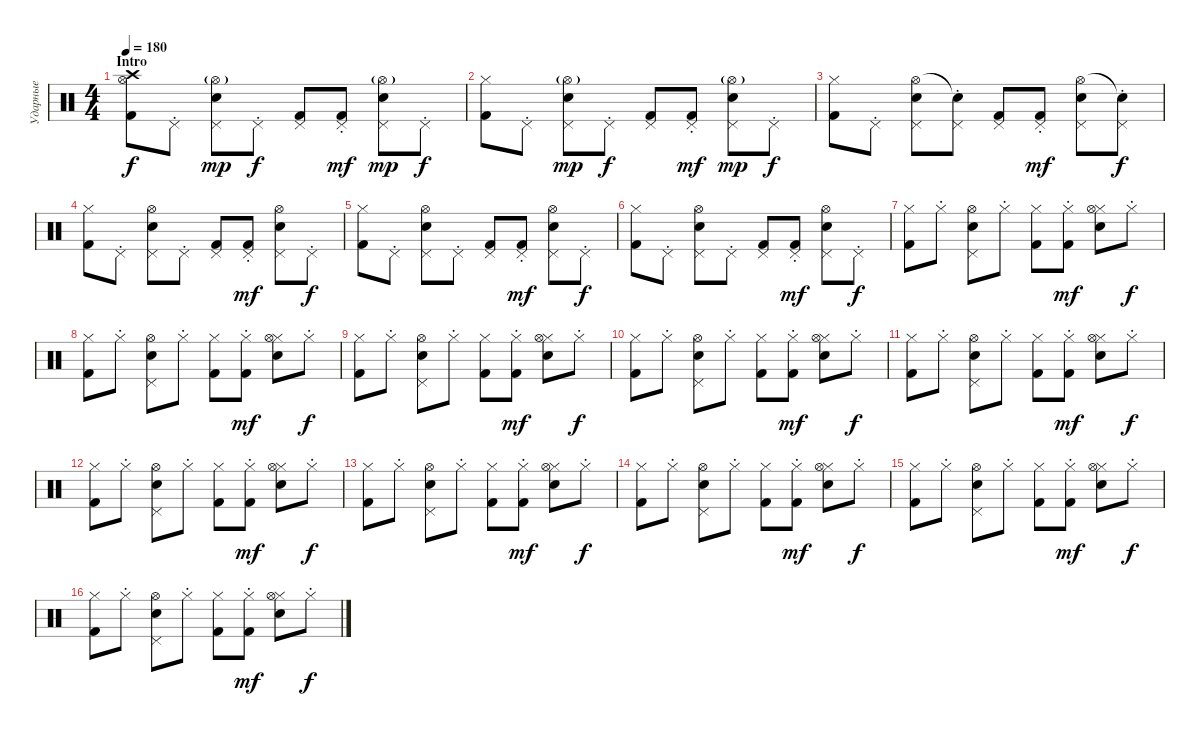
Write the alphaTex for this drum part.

\track ("Ударные" "Ударные") {instrument percussion}
\staff {score}
\articulation defaults
\ts (4 4)
\section ("" "Intro")
\tempo 180
\clef neutral
\ks c
("Hi-Hat (open)" "Crash high (hit)" "Kick (hit) 2").8{dy f} "Pedal Hi-Hat (hit)"{st}.8 ("Pedal Hi-Hat (hit)" "Hi-Hat (open)"{g} "Snare (hit) 2").8{dy mp} "Pedal Hi-Hat (hit)"{st}.8{dy f} ("Pedal Hi-Hat (hit)" "Kick (hit) 2").8 ("Pedal Hi-Hat (hit)"{st} "Kick (hit) 2").8{dy mf} ("Pedal Hi-Hat (hit)" "Hi-Hat (open)"{g} "Snare (hit) 2").8{dy mp} "Pedal Hi-Hat (hit)"{st}.8{dy f} |
("Hi-Hat (closed)" "Kick (hit) 2").8 "Pedal Hi-Hat (hit)"{st}.8 ("Pedal Hi-Hat (hit)" "Hi-Hat (open)"{g} "Snare (hit) 2").8{dy mp} "Pedal Hi-Hat (hit)"{st}.8{dy f} ("Pedal Hi-Hat (hit)" "Kick (hit) 2").8 ("Pedal Hi-Hat (hit)"{st} "Kick (hit) 2").8{dy mf} ("Pedal Hi-Hat (hit)" "Hi-Hat (open)"{g} "Snare (hit) 2").8{dy mp} "Pedal Hi-Hat (hit)"{st}.8{dy f} |
("Hi-Hat (closed)" "Kick (hit) 2").8 "Pedal Hi-Hat (hit)"{st}.8 ("Pedal Hi-Hat (hit)" "Hi-Hat (open)" "Snare (hit) 2").8 ("Pedal Hi-Hat (hit)"{st} "Snare (hit)"{t}).8 ("Pedal Hi-Hat (hit)" "Kick (hit) 2").8 ("Pedal Hi-Hat (hit)"{st} "Kick (hit) 2").8{dy mf} ("Pedal Hi-Hat (hit)" "Hi-Hat (open)" "Snare (hit) 2").8 ("Pedal Hi-Hat (hit)"{st} "Snare (hit)"{t}).8{dy f} |
("Hi-Hat (closed)" "Kick (hit) 2").8 "Pedal Hi-Hat (hit)"{st}.8 ("Pedal Hi-Hat (hit)" "Hi-Hat (open)" "Snare (hit) 2").8 "Pedal Hi-Hat (hit)"{st}.8 ("Pedal Hi-Hat (hit)" "Kick (hit) 2").8 ("Pedal Hi-Hat (hit)"{st} "Kick (hit) 2").8{dy mf} ("Pedal Hi-Hat (hit)" "Hi-Hat (open)" "Snare (hit) 2").8 "Pedal Hi-Hat (hit)"{st}.8{dy f} |
("Hi-Hat (closed)" "Kick (hit) 2").8 "Pedal Hi-Hat (hit)"{st}.8 ("Pedal Hi-Hat (hit)" "Hi-Hat (open)" "Snare (hit) 2").8 "Pedal Hi-Hat (hit)"{st}.8 ("Pedal Hi-Hat (hit)" "Kick (hit) 2").8 ("Pedal Hi-Hat (hit)"{st} "Kick (hit) 2").8{dy mf} ("Pedal Hi-Hat (hit)" "Hi-Hat (open)" "Snare (hit) 2").8 "Pedal Hi-Hat (hit)"{st}.8{dy f} |
("Hi-Hat (closed)" "Kick (hit) 2").8 "Pedal Hi-Hat (hit)"{st}.8 ("Pedal Hi-Hat (hit)" "Hi-Hat (open)" "Snare (hit) 2").8 "Pedal Hi-Hat (hit)"{st}.8 ("Pedal Hi-Hat (hit)" "Kick (hit) 2").8 ("Pedal Hi-Hat (hit)"{st} "Kick (hit) 2").8{dy mf} ("Pedal Hi-Hat (hit)" "Hi-Hat (open)" "Snare (hit) 2").8 "Pedal Hi-Hat (hit)"{st}.8{dy f} |
("Hi-Hat (closed)" "Kick (hit) 2").8 "Hi-Hat (closed)"{st}.8 ("Pedal Hi-Hat (hit)" "Hi-Hat (open)" "Snare (hit) 2").8 "Hi-Hat (closed)"{st}.8 ("Hi-Hat (closed)" "Kick (hit) 2").8 ("Hi-Hat (closed)"{st} "Kick (hit) 2").8{dy mf} ("Hi-Hat (closed)" "Hi-Hat (open)" "Snare (hit) 2").8 "Hi-Hat (closed)"{st}.8{dy f} |
("Hi-Hat (closed)" "Kick (hit) 2").8 "Hi-Hat (closed)"{st}.8 ("Pedal Hi-Hat (hit)" "Hi-Hat (open)" "Snare (hit) 2").8 "Hi-Hat (closed)"{st}.8 ("Hi-Hat (closed)" "Kick (hit) 2").8 ("Hi-Hat (closed)"{st} "Kick (hit) 2").8{dy mf} ("Hi-Hat (closed)" "Hi-Hat (open)" "Snare (hit) 2").8 "Hi-Hat (closed)"{st}.8{dy f} |
("Hi-Hat (closed)" "Kick (hit) 2").8 "Hi-Hat (closed)"{st}.8 ("Pedal Hi-Hat (hit)" "Hi-Hat (open)" "Snare (hit) 2").8 "Hi-Hat (closed)"{st}.8 ("Hi-Hat (closed)" "Kick (hit) 2").8 ("Hi-Hat (closed)"{st} "Kick (hit) 2").8{dy mf} ("Hi-Hat (closed)" "Hi-Hat (open)" "Snare (hit) 2").8 "Hi-Hat (closed)"{st}.8{dy f} |
("Hi-Hat (closed)" "Kick (hit) 2").8 "Hi-Hat (closed)"{st}.8 ("Pedal Hi-Hat (hit)" "Hi-Hat (open)" "Snare (hit) 2").8 "Hi-Hat (closed)"{st}.8 ("Hi-Hat (closed)" "Kick (hit) 2").8 ("Hi-Hat (closed)"{st} "Kick (hit) 2").8{dy mf} ("Hi-Hat (closed)" "Hi-Hat (open)" "Snare (hit) 2").8 "Hi-Hat (closed)"{st}.8{dy f} |
("Hi-Hat (closed)" "Kick (hit) 2").8 "Hi-Hat (closed)"{st}.8 ("Pedal Hi-Hat (hit)" "Hi-Hat (open)" "Snare (hit) 2").8 "Hi-Hat (closed)"{st}.8 ("Hi-Hat (closed)" "Kick (hit) 2").8 ("Hi-Hat (closed)"{st} "Kick (hit) 2").8{dy mf} ("Hi-Hat (closed)" "Hi-Hat (open)" "Snare (hit) 2").8 "Hi-Hat (closed)"{st}.8{dy f} |
("Hi-Hat (closed)" "Kick (hit) 2").8 "Hi-Hat (closed)"{st}.8 ("Pedal Hi-Hat (hit)" "Hi-Hat (open)" "Snare (hit) 2").8 "Hi-Hat (closed)"{st}.8 ("Hi-Hat (closed)" "Kick (hit) 2").8 ("Hi-Hat (closed)"{st} "Kick (hit) 2").8{dy mf} ("Hi-Hat (closed)" "Hi-Hat (open)" "Snare (hit) 2").8 "Hi-Hat (closed)"{st}.8{dy f} |
("Hi-Hat (closed)" "Kick (hit) 2").8 "Hi-Hat (closed)"{st}.8 ("Pedal Hi-Hat (hit)" "Hi-Hat (open)" "Snare (hit) 2").8 "Hi-Hat (closed)"{st}.8 ("Hi-Hat (closed)" "Kick (hit) 2").8 ("Hi-Hat (closed)"{st} "Kick (hit) 2").8{dy mf} ("Hi-Hat (closed)" "Hi-Hat (open)" "Snare (hit) 2").8 "Hi-Hat (closed)"{st}.8{dy f} |
("Hi-Hat (closed)" "Kick (hit) 2").8 "Hi-Hat (closed)"{st}.8 ("Pedal Hi-Hat (hit)" "Hi-Hat (open)" "Snare (hit) 2").8 "Hi-Hat (closed)"{st}.8 ("Hi-Hat (closed)" "Kick (hit) 2").8 ("Hi-Hat (closed)"{st} "Kick (hit) 2").8{dy mf} ("Hi-Hat (closed)" "Hi-Hat (open)" "Snare (hit) 2").8 "Hi-Hat (closed)"{st}.8{dy f} |
("Hi-Hat (closed)" "Kick (hit) 2").8 "Hi-Hat (closed)"{st}.8 ("Pedal Hi-Hat (hit)" "Hi-Hat (open)" "Snare (hit) 2").8 "Hi-Hat (closed)"{st}.8 ("Hi-Hat (closed)" "Kick (hit) 2").8 ("Hi-Hat (closed)"{st} "Kick (hit) 2").8{dy mf} ("Hi-Hat (closed)" "Hi-Hat (open)" "Snare (hit) 2").8 "Hi-Hat (closed)"{st}.8{dy f} |
("Hi-Hat (closed)" "Kick (hit) 2").8 "Hi-Hat (closed)"{st}.8 ("Pedal Hi-Hat (hit)" "Hi-Hat (open)" "Snare (hit) 2").8 "Hi-Hat (closed)"{st}.8 ("Hi-Hat (closed)" "Kick (hit) 2").8 ("Hi-Hat (closed)"{st} "Kick (hit) 2").8{dy mf} ("Hi-Hat (closed)" "Hi-Hat (open)" "Snare (hit) 2").8 "Hi-Hat (closed)"{st}.8{dy f}
